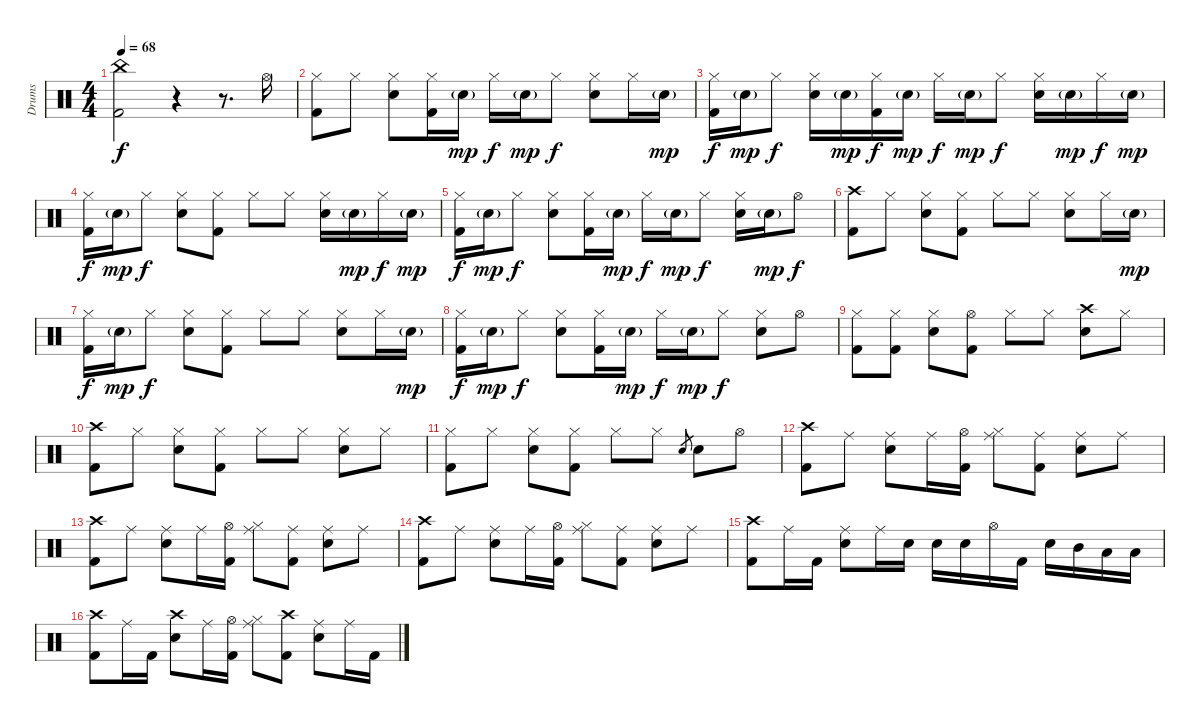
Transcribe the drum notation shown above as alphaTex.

\track ("Drums" "Drums") {instrument percussion}
\staff {score}
\articulation defaults
\ts (4 4)
\tempo 68
\clef neutral
\ks c
("China (hit)" "Kick (hit) 2").2{dy f} r.4 r.8{d} "Hi-Hat (open)".16 |
("Hi-Hat (closed)" "Kick (hit) 2").8 "Hi-Hat (closed)".8 ("Hi-Hat (closed)" "Electric Snare (hit)").8 ("Hi-Hat (closed)" "Kick (hit) 2").16 "Electric Snare (hit)"{g}.16{dy mp} "Hi-Hat (closed)".16{dy f} "Electric Snare (hit)"{g}.16{dy mp} "Hi-Hat (closed)".8{dy f} ("Hi-Hat (closed)" "Electric Snare (hit)").8 "Hi-Hat (closed)".16 "Electric Snare (hit)"{g}.16{dy mp} |
("Hi-Hat (closed)" "Kick (hit) 2").16{dy f} "Electric Snare (hit)"{g}.16{dy mp} "Hi-Hat (closed)".8{dy f} ("Hi-Hat (closed)" "Electric Snare (hit)").16 "Electric Snare (hit)"{g}.16{dy mp} ("Hi-Hat (closed)" "Kick (hit) 2").16{dy f} "Electric Snare (hit)"{g}.16{dy mp} "Hi-Hat (closed)".16{dy f} "Electric Snare (hit)"{g}.16{dy mp} "Hi-Hat (closed)".8{dy f} ("Hi-Hat (closed)" "Electric Snare (hit)").16 "Electric Snare (hit)"{g}.16{dy mp} "Hi-Hat (closed)".16{dy f} "Electric Snare (hit)"{g}.16{dy mp} |
("Hi-Hat (closed)" "Kick (hit) 2").16{dy f} "Electric Snare (hit)"{g}.16{dy mp} "Hi-Hat (closed)".8{dy f} ("Hi-Hat (closed)" "Electric Snare (hit)").8 ("Hi-Hat (closed)" "Kick (hit) 2").8 "Hi-Hat (closed)".8 "Hi-Hat (closed)".8 ("Hi-Hat (closed)" "Electric Snare (hit)").16 "Electric Snare (hit)"{g}.16{dy mp} "Hi-Hat (closed)".16{dy f} "Electric Snare (hit)"{g}.16{dy mp} |
("Hi-Hat (closed)" "Kick (hit) 2").16{dy f} "Electric Snare (hit)"{g}.16{dy mp} "Hi-Hat (closed)".8{dy f} ("Hi-Hat (closed)" "Electric Snare (hit)").8 ("Hi-Hat (closed)" "Kick (hit) 2").16 "Electric Snare (hit)"{g}.16{dy mp} "Hi-Hat (closed)".16{dy f} "Electric Snare (hit)"{g}.16{dy mp} "Hi-Hat (closed)".8{dy f} ("Hi-Hat (closed)" "Electric Snare (hit)").16 "Electric Snare (hit)"{g}.16{dy mp} "Hi-Hat (open)".8{dy f} |
("Crash high (hit)" "Kick (hit) 2").8 "Hi-Hat (closed)".8 ("Hi-Hat (closed)" "Electric Snare (hit)").8 ("Hi-Hat (closed)" "Kick (hit) 2").8 "Hi-Hat (closed)".8 "Hi-Hat (closed)".8 ("Hi-Hat (closed)" "Electric Snare (hit)").8 "Hi-Hat (closed)".16 "Electric Snare (hit)"{g}.16{dy mp} |
("Hi-Hat (closed)" "Kick (hit) 2").16{dy f} "Electric Snare (hit)"{g}.16{dy mp} "Hi-Hat (closed)".8{dy f} ("Hi-Hat (closed)" "Electric Snare (hit)").8 ("Hi-Hat (closed)" "Kick (hit) 2").8 "Hi-Hat (closed)".8 "Hi-Hat (closed)".8 ("Hi-Hat (closed)" "Electric Snare (hit)").8 "Hi-Hat (closed)".16 "Electric Snare (hit)"{g}.16{dy mp} |
("Hi-Hat (closed)" "Kick (hit) 2").16{dy f} "Electric Snare (hit)"{g}.16{dy mp} "Hi-Hat (closed)".8{dy f} ("Hi-Hat (closed)" "Electric Snare (hit)").8 ("Hi-Hat (closed)" "Kick (hit) 2").16 "Electric Snare (hit)"{g}.16{dy mp} "Hi-Hat (closed)".16{dy f} "Electric Snare (hit)"{g}.16{dy mp} "Hi-Hat (closed)".8{dy f} ("Hi-Hat (closed)" "Electric Snare (hit)").8 "Hi-Hat (open)".8 |
("Hi-Hat (closed)" "Kick (hit) 2").8 ("Hi-Hat (closed)" "Kick (hit) 2").8 ("Hi-Hat (closed)" "Electric Snare (hit)").8 ("Hi-Hat (open)" "Kick (hit) 2").8 "Hi-Hat (closed)".8 "Hi-Hat (closed)".8 ("Crash high (hit)" "Electric Snare (hit)").8 "Hi-Hat (closed)".8 |
("Crash high (hit)" "Kick (hit) 2").8 "Hi-Hat (closed)".8 ("Hi-Hat (closed)" "Electric Snare (hit)").8 ("Hi-Hat (closed)" "Kick (hit) 2").8 "Hi-Hat (closed)".8 "Hi-Hat (closed)".8 ("Hi-Hat (closed)" "Electric Snare (hit)").8 "Hi-Hat (closed)".8 |
("Hi-Hat (closed)" "Kick (hit) 2").8 "Hi-Hat (closed)".8 ("Hi-Hat (closed)" "Electric Snare (hit)").8 ("Hi-Hat (closed)" "Kick (hit) 2").8 "Hi-Hat (closed)".8 "Hi-Hat (closed)".8 "Electric Snare (hit)".8{gr} "Electric Snare (hit)".8 "Hi-Hat (open)".8 |
("Crash high (hit)" "Kick (hit) 2").8 "Ride (middle)".8 ("Ride (middle)" "Electric Snare (hit)").8 "Ride (middle)".16 ("Hi-Hat (open)" "Kick (hit) 2").16 ("Ride (middle)" "Hi-Hat (closed)").8 ("Ride (middle)" "Kick (hit) 2").8 ("Ride (middle)" "Electric Snare (hit)").8 "Ride (middle)".8 |
("Crash high (hit)" "Kick (hit) 2").8 "Ride (middle)".8 ("Ride (middle)" "Electric Snare (hit)").8 "Ride (middle)".16 ("Hi-Hat (open)" "Kick (hit) 2").16 ("Ride (middle)" "Hi-Hat (closed)").8 ("Ride (middle)" "Kick (hit) 2").8 ("Ride (middle)" "Electric Snare (hit)").8 "Ride (middle)".8 |
("Crash high (hit)" "Kick (hit) 2").8 "Ride (middle)".8 ("Ride (middle)" "Electric Snare (hit)").8 "Ride (middle)".16 ("Hi-Hat (open)" "Kick (hit) 2").16 ("Ride (middle)" "Hi-Hat (closed)").8 ("Ride (middle)" "Kick (hit) 2").8 ("Ride (middle)" "Electric Snare (hit)").8 "Ride (middle)".8 |
("Crash high (hit)" "Kick (hit) 2").8 "Ride (middle)".16 "Kick (hit) 2".16 ("Ride (middle)" "Electric Snare (hit)").8 "Ride (middle)".16 "Electric Snare (hit)".16 "Electric Snare (hit)".16 "Electric Snare (hit)".16 "Hi-Hat (open)".16 "Kick (hit) 2".16 "Electric Snare (hit)".16 "Mid Tom (hit)".16 "Low Tom (hit)".16 "Low Floor Tom (hit)".16 |
("Crash high (hit)" "Kick (hit) 2").8 "Ride (middle)".16 "Kick (hit) 2".16 ("Crash high (hit)" "Electric Snare (hit)").8 "Ride (middle)".16 ("Hi-Hat (open)" "Kick (hit) 2").16 ("Ride (middle)" "Hi-Hat (closed)").8 ("Crash high (hit)" "Kick (hit) 2").8 ("Ride (middle)" "Electric Snare (hit)").8 "Ride (middle)".16 "Kick (hit) 2".16
